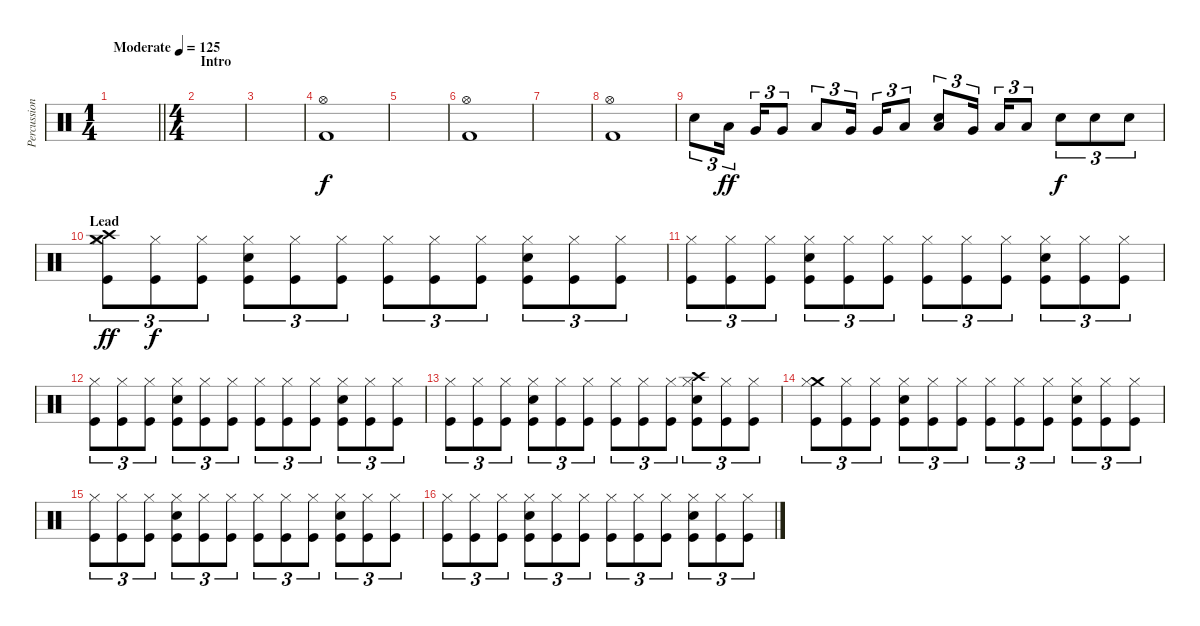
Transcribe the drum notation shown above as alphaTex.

\track ("Percussion" "Percussion") {instrument percussion}
\staff {score}
\articulation defaults
\ts (1 4)
\tempo (125 "Moderate")
\clef neutral
\barLineRight lightlight
\ks c
|
\ts (4 4)
\section ("" "Intro")
|
|
("Hi-Hat (open)" "Kick (hit) 2").1 |
|
("Kick (hit) 2" "Hi-Hat (open)").1 |
|
("Kick (hit) 2" "Hi-Hat (open)").1 |
"Snare (hit) 2".8{tu (3 2)} "Low Tom (hit)".16{tu (3 2) dy ff beam splitsecondary} "Very Low Tom (hit)".16{tu (3 2)} "Very Low Tom (hit)".8{tu (3 2)} "Low Floor Tom (hit)".8{tu (3 2)} "Very Low Tom (hit)".16{tu (3 2) beam splitsecondary} "Very Low Tom (hit)".16{tu (3 2)} "Low Floor Tom (hit)".8{tu (3 2)} ("Snare (hit) 2" "Low Floor Tom (hit)").8{tu (3 2)} "Very Low Tom (hit)".16{tu (3 2) beam splitsecondary} "Low Floor Tom (hit)".16{tu (3 2)} "Low Floor Tom (hit)".8{tu (3 2)} "Snare (hit) 2".8{tu (3 2) dy f} "Snare (hit) 2".8{tu (3 2)} "Snare (hit) 2".8{tu (3 2)} |
\section ("" "Lead")
("Crash high (hit)" "Crash medium (hit)" "Hi-Hat (closed)" "Kick (hit)").8{tu (3 2) dy ff} ("Hi-Hat (closed)" "Kick (hit)").8{tu (3 2) dy f} ("Hi-Hat (closed)" "Kick (hit)").8{tu (3 2)} ("Hi-Hat (closed)" "Snare (hit) 2" "Kick (hit)").8{tu (3 2)} ("Hi-Hat (closed)" "Kick (hit)").8{tu (3 2)} ("Hi-Hat (closed)" "Kick (hit)").8{tu (3 2)} ("Hi-Hat (closed)" "Kick (hit)").8{tu (3 2)} ("Hi-Hat (closed)" "Kick (hit)").8{tu (3 2)} ("Hi-Hat (closed)" "Kick (hit)").8{tu (3 2)} ("Hi-Hat (closed)" "Snare (hit) 2" "Kick (hit)").8{tu (3 2)} ("Hi-Hat (closed)" "Kick (hit)").8{tu (3 2)} ("Hi-Hat (closed)" "Kick (hit)").8{tu (3 2)} |
("Hi-Hat (closed)" "Kick (hit)").8{tu (3 2)} ("Hi-Hat (closed)" "Kick (hit)").8{tu (3 2)} ("Hi-Hat (closed)" "Kick (hit)").8{tu (3 2)} ("Hi-Hat (closed)" "Snare (hit) 2" "Kick (hit)").8{tu (3 2)} ("Hi-Hat (closed)" "Kick (hit)").8{tu (3 2)} ("Hi-Hat (closed)" "Kick (hit)").8{tu (3 2)} ("Hi-Hat (closed)" "Kick (hit)").8{tu (3 2)} ("Hi-Hat (closed)" "Kick (hit)").8{tu (3 2)} ("Hi-Hat (closed)" "Kick (hit)").8{tu (3 2)} ("Hi-Hat (closed)" "Snare (hit) 2" "Kick (hit)").8{tu (3 2)} ("Hi-Hat (closed)" "Kick (hit)").8{tu (3 2)} ("Hi-Hat (closed)" "Kick (hit)").8{tu (3 2)} |
("Hi-Hat (closed)" "Kick (hit)").8{tu (3 2)} ("Hi-Hat (closed)" "Kick (hit)").8{tu (3 2)} ("Hi-Hat (closed)" "Kick (hit)").8{tu (3 2)} ("Hi-Hat (closed)" "Snare (hit) 2" "Kick (hit)").8{tu (3 2)} ("Hi-Hat (closed)" "Kick (hit)").8{tu (3 2)} ("Hi-Hat (closed)" "Kick (hit)").8{tu (3 2)} ("Hi-Hat (closed)" "Kick (hit)").8{tu (3 2)} ("Hi-Hat (closed)" "Kick (hit)").8{tu (3 2)} ("Hi-Hat (closed)" "Kick (hit)").8{tu (3 2)} ("Hi-Hat (closed)" "Snare (hit) 2" "Kick (hit)").8{tu (3 2)} ("Hi-Hat (closed)" "Kick (hit)").8{tu (3 2)} ("Hi-Hat (closed)" "Kick (hit)").8{tu (3 2)} |
("Hi-Hat (closed)" "Kick (hit)").8{tu (3 2)} ("Hi-Hat (closed)" "Kick (hit)").8{tu (3 2)} ("Hi-Hat (closed)" "Kick (hit)").8{tu (3 2)} ("Hi-Hat (closed)" "Snare (hit) 2" "Kick (hit)").8{tu (3 2)} ("Hi-Hat (closed)" "Kick (hit)").8{tu (3 2)} ("Hi-Hat (closed)" "Kick (hit)").8{tu (3 2)} ("Hi-Hat (closed)" "Kick (hit)").8{tu (3 2)} ("Hi-Hat (closed)" "Kick (hit)").8{tu (3 2)} ("Hi-Hat (closed)" "Kick (hit)").8{tu (3 2)} ("Crash high (hit)" "Hi-Hat (closed)" "Snare (hit) 2" "Kick (hit)").8{tu (3 2)} ("Hi-Hat (closed)" "Kick (hit)").8{tu (3 2)} ("Hi-Hat (closed)" "Kick (hit)").8{tu (3 2)} |
("Crash medium (hit)" "Hi-Hat (closed)" "Kick (hit)").8{tu (3 2)} ("Hi-Hat (closed)" "Kick (hit)").8{tu (3 2)} ("Hi-Hat (closed)" "Kick (hit)").8{tu (3 2)} ("Hi-Hat (closed)" "Snare (hit) 2" "Kick (hit)").8{tu (3 2)} ("Hi-Hat (closed)" "Kick (hit)").8{tu (3 2)} ("Hi-Hat (closed)" "Kick (hit)").8{tu (3 2)} ("Hi-Hat (closed)" "Kick (hit)").8{tu (3 2)} ("Hi-Hat (closed)" "Kick (hit)").8{tu (3 2)} ("Hi-Hat (closed)" "Kick (hit)").8{tu (3 2)} ("Hi-Hat (closed)" "Snare (hit) 2" "Kick (hit)").8{tu (3 2)} ("Hi-Hat (closed)" "Kick (hit)").8{tu (3 2)} ("Hi-Hat (closed)" "Kick (hit)").8{tu (3 2)} |
("Hi-Hat (closed)" "Kick (hit)").8{tu (3 2)} ("Hi-Hat (closed)" "Kick (hit)").8{tu (3 2)} ("Hi-Hat (closed)" "Kick (hit)").8{tu (3 2)} ("Hi-Hat (closed)" "Snare (hit) 2" "Kick (hit)").8{tu (3 2)} ("Hi-Hat (closed)" "Kick (hit)").8{tu (3 2)} ("Hi-Hat (closed)" "Kick (hit)").8{tu (3 2)} ("Hi-Hat (closed)" "Kick (hit)").8{tu (3 2)} ("Hi-Hat (closed)" "Kick (hit)").8{tu (3 2)} ("Hi-Hat (closed)" "Kick (hit)").8{tu (3 2)} ("Hi-Hat (closed)" "Snare (hit) 2" "Kick (hit)").8{tu (3 2)} ("Hi-Hat (closed)" "Kick (hit)").8{tu (3 2)} ("Hi-Hat (closed)" "Kick (hit)").8{tu (3 2)} |
("Hi-Hat (closed)" "Kick (hit)").8{tu (3 2)} ("Hi-Hat (closed)" "Kick (hit)").8{tu (3 2)} ("Hi-Hat (closed)" "Kick (hit)").8{tu (3 2)} ("Hi-Hat (closed)" "Snare (hit) 2" "Kick (hit)").8{tu (3 2)} ("Hi-Hat (closed)" "Kick (hit)").8{tu (3 2)} ("Hi-Hat (closed)" "Kick (hit)").8{tu (3 2)} ("Hi-Hat (closed)" "Kick (hit)").8{tu (3 2)} ("Hi-Hat (closed)" "Kick (hit)").8{tu (3 2)} ("Hi-Hat (closed)" "Kick (hit)").8{tu (3 2)} ("Hi-Hat (closed)" "Snare (hit) 2" "Kick (hit)").8{tu (3 2)} ("Hi-Hat (closed)" "Kick (hit)").8{tu (3 2)} ("Hi-Hat (closed)" "Kick (hit)").8{tu (3 2)}
